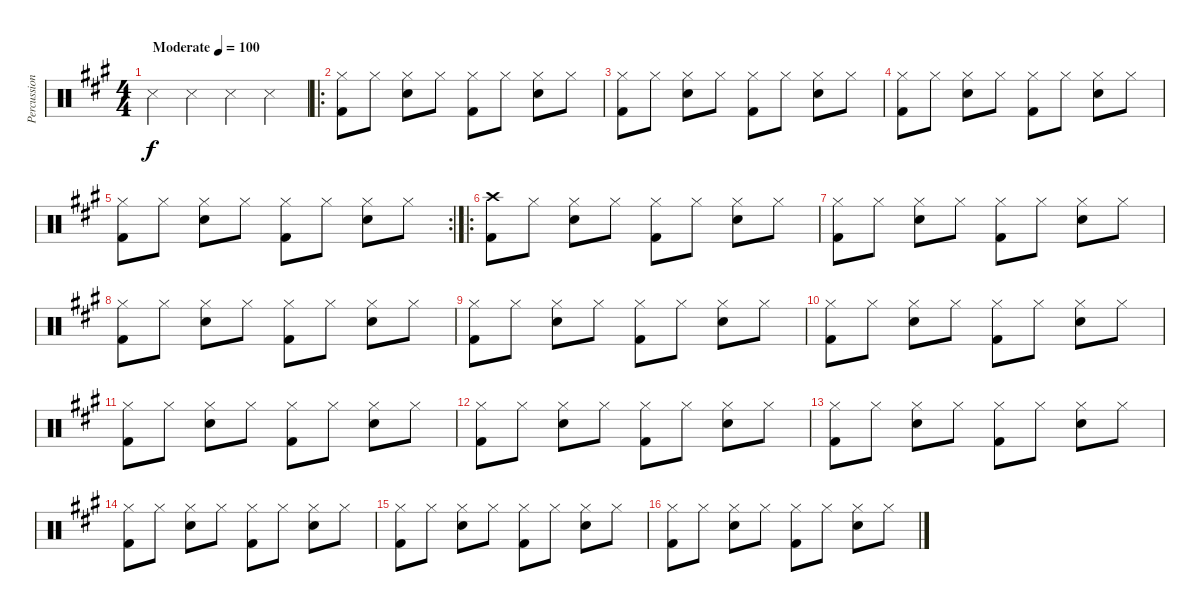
\track ("Percussion" "Percussion") {instrument percussion}
\staff {score}
\articulation defaults
\ts (4 4)
\tempo (100 "Moderate")
\clef neutral
\ks a "Snare (side stick) 3".4{dy f} "Snare (side stick) 3".4 "Snare (side stick) 3".4 "Snare (side stick) 3".4
|
\ro
("Hi-Hat (closed)" "Kick (hit) 2").8 "Hi-Hat (closed)".8 ("Hi-Hat (closed)" "Snare (hit) 2").8 "Hi-Hat (closed)".8 ("Hi-Hat (closed)" "Kick (hit) 2").8 "Hi-Hat (closed)".8 ("Hi-Hat (closed)" "Snare (hit) 2").8 "Hi-Hat (closed)".8 |
("Hi-Hat (closed)" "Kick (hit) 2").8 "Hi-Hat (closed)".8 ("Hi-Hat (closed)" "Snare (hit) 2").8 "Hi-Hat (closed)".8 ("Hi-Hat (closed)" "Kick (hit) 2").8 "Hi-Hat (closed)".8 ("Hi-Hat (closed)" "Snare (hit) 2").8 "Hi-Hat (closed)".8 |
("Hi-Hat (closed)" "Kick (hit) 2").8 "Hi-Hat (closed)".8 ("Hi-Hat (closed)" "Snare (hit) 2").8 "Hi-Hat (closed)".8 ("Hi-Hat (closed)" "Kick (hit) 2").8 "Hi-Hat (closed)".8 ("Hi-Hat (closed)" "Snare (hit) 2").8 "Hi-Hat (closed)".8 |
\rc 2
("Hi-Hat (closed)" "Kick (hit) 2").8 "Hi-Hat (closed)".8 ("Hi-Hat (closed)" "Snare (hit) 2").8 "Hi-Hat (closed)".8 ("Hi-Hat (closed)" "Kick (hit) 2").8 "Hi-Hat (closed)".8 ("Hi-Hat (closed)" "Snare (hit) 2").8 "Hi-Hat (closed)".8 |
\ro
("Crash high (hit)" "Kick (hit) 2").8 "Hi-Hat (closed)".8 ("Hi-Hat (closed)" "Snare (hit) 2").8 "Hi-Hat (closed)".8 ("Hi-Hat (closed)" "Kick (hit) 2").8 "Hi-Hat (closed)".8 ("Hi-Hat (closed)" "Snare (hit) 2").8 "Hi-Hat (closed)".8 |
("Hi-Hat (closed)" "Kick (hit) 2").8 "Hi-Hat (closed)".8 ("Hi-Hat (closed)" "Snare (hit) 2").8 "Hi-Hat (closed)".8 ("Hi-Hat (closed)" "Kick (hit) 2").8 "Hi-Hat (closed)".8 ("Hi-Hat (closed)" "Snare (hit) 2").8 "Hi-Hat (closed)".8 |
("Hi-Hat (closed)" "Kick (hit) 2").8 "Hi-Hat (closed)".8 ("Hi-Hat (closed)" "Snare (hit) 2").8 "Hi-Hat (closed)".8 ("Hi-Hat (closed)" "Kick (hit) 2").8 "Hi-Hat (closed)".8 ("Hi-Hat (closed)" "Snare (hit) 2").8 "Hi-Hat (closed)".8 |
("Hi-Hat (closed)" "Kick (hit) 2").8 "Hi-Hat (closed)".8 ("Hi-Hat (closed)" "Snare (hit) 2").8 "Hi-Hat (closed)".8 ("Hi-Hat (closed)" "Kick (hit) 2").8 "Hi-Hat (closed)".8 ("Hi-Hat (closed)" "Snare (hit) 2").8 "Hi-Hat (closed)".8 |
("Hi-Hat (closed)" "Kick (hit) 2").8 "Hi-Hat (closed)".8 ("Hi-Hat (closed)" "Snare (hit) 2").8 "Hi-Hat (closed)".8 ("Hi-Hat (closed)" "Kick (hit) 2").8 "Hi-Hat (closed)".8 ("Hi-Hat (closed)" "Snare (hit) 2").8 "Hi-Hat (closed)".8 |
("Hi-Hat (closed)" "Kick (hit) 2").8 "Hi-Hat (closed)".8 ("Hi-Hat (closed)" "Snare (hit) 2").8 "Hi-Hat (closed)".8 ("Hi-Hat (closed)" "Kick (hit) 2").8 "Hi-Hat (closed)".8 ("Hi-Hat (closed)" "Snare (hit) 2").8 "Hi-Hat (closed)".8 |
("Hi-Hat (closed)" "Kick (hit) 2").8 "Hi-Hat (closed)".8 ("Hi-Hat (closed)" "Snare (hit) 2").8 "Hi-Hat (closed)".8 ("Hi-Hat (closed)" "Kick (hit) 2").8 "Hi-Hat (closed)".8 ("Hi-Hat (closed)" "Snare (hit) 2").8 "Hi-Hat (closed)".8 |
("Hi-Hat (closed)" "Kick (hit) 2").8 "Hi-Hat (closed)".8 ("Hi-Hat (closed)" "Snare (hit) 2").8 "Hi-Hat (closed)".8 ("Hi-Hat (closed)" "Kick (hit) 2").8 "Hi-Hat (closed)".8 ("Hi-Hat (closed)" "Snare (hit) 2").8 "Hi-Hat (closed)".8 |
("Hi-Hat (closed)" "Kick (hit) 2").8 "Hi-Hat (closed)".8 ("Hi-Hat (closed)" "Snare (hit) 2").8 "Hi-Hat (closed)".8 ("Hi-Hat (closed)" "Kick (hit) 2").8 "Hi-Hat (closed)".8 ("Hi-Hat (closed)" "Snare (hit) 2").8 "Hi-Hat (closed)".8 |
("Hi-Hat (closed)" "Kick (hit) 2").8 "Hi-Hat (closed)".8 ("Hi-Hat (closed)" "Snare (hit) 2").8 "Hi-Hat (closed)".8 ("Hi-Hat (closed)" "Kick (hit) 2").8 "Hi-Hat (closed)".8 ("Hi-Hat (closed)" "Snare (hit) 2").8 "Hi-Hat (closed)".8 |
("Hi-Hat (closed)" "Kick (hit) 2").8 "Hi-Hat (closed)".8 ("Hi-Hat (closed)" "Snare (hit) 2").8 "Hi-Hat (closed)".8 ("Hi-Hat (closed)" "Kick (hit) 2").8 "Hi-Hat (closed)".8 ("Hi-Hat (closed)" "Snare (hit) 2").8 "Hi-Hat (closed)".8
